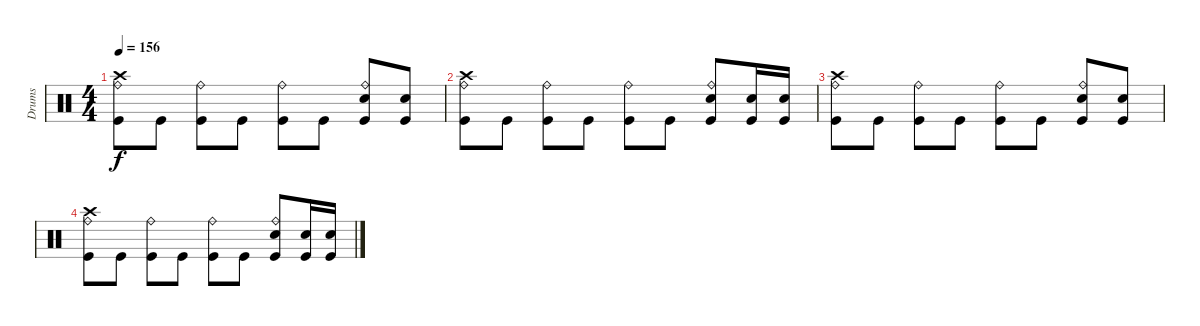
\track ("Drums" "Drums") {instrument percussion}
\staff {score}
\articulation defaults
\ts (4 4)
\tempo 156
\clef neutral
\ks c
("Crash high (hit)" "Kick (hit)" "Ride (bell)").8{dy f volume 8} "Kick (hit)".8 ("Kick (hit)" "Ride (bell)").8 "Kick (hit)".8 ("Kick (hit)" "Ride (bell)").8 "Kick (hit)".8 ("Electric Snare (hit)" "Kick (hit)" "Ride (bell)").8 ("Electric Snare (hit)" "Kick (hit)").8 |
("Crash high (hit)" "Kick (hit)" "Ride (bell)").8{volume 6} "Kick (hit)".8 ("Kick (hit)" "Ride (bell)").8 "Kick (hit)".8 ("Kick (hit)" "Ride (bell)").8 "Kick (hit)".8 ("Electric Snare (hit)" "Kick (hit)" "Ride (bell)").8 ("Snare (hit) 2" "Kick (hit)").16 ("Snare (hit) 2" "Kick (hit)").16 |
("Crash high (hit)" "Kick (hit)" "Ride (bell)").8{volume 3} "Kick (hit)".8 ("Kick (hit)" "Ride (bell)").8 "Kick (hit)".8 ("Kick (hit)" "Ride (bell)").8 "Kick (hit)".8 ("Electric Snare (hit)" "Kick (hit)" "Ride (bell)").8 ("Electric Snare (hit)" "Kick (hit)").8 |
("Crash high (hit)" "Kick (hit)" "Ride (bell)").8{volume 0} "Kick (hit)".8 ("Kick (hit)" "Ride (bell)").8 "Kick (hit)".8 ("Kick (hit)" "Ride (bell)").8 "Kick (hit)".8 ("Electric Snare (hit)" "Kick (hit)" "Ride (bell)").8 ("Snare (hit) 2" "Kick (hit)").16 ("Snare (hit) 2" "Kick (hit)").16
